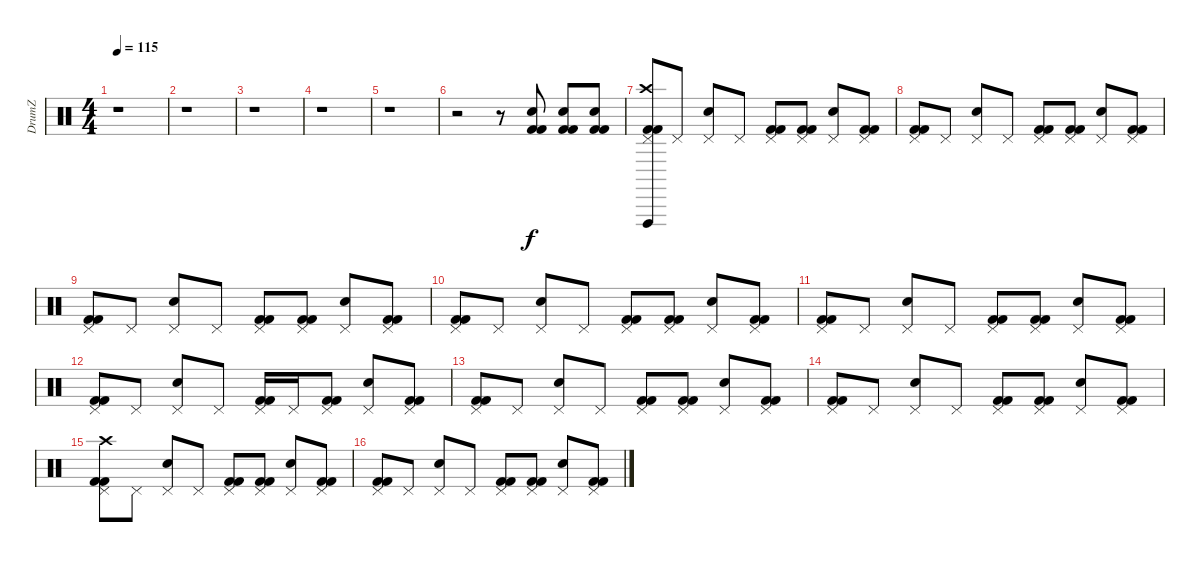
\track ("DrumZ" "DrumZ") {instrument percussion}
\staff {score}
\articulation defaults
\ts (4 4)
\tempo 115
\clef neutral
\ks c
r.1{dy f} |
r.1 |
r.1 |
r.1 |
r.1 |
r.2 r.8 ("Snare (hit) 2" "Kick (hit) 2" "Kick (hit) 2").8 ("Electric Snare (hit)" "Kick (hit) 2" "Kick (hit) 2").8 ("Snare (hit) 2" "Kick (hit) 2" "Kick (hit) 2").8 |
("Pedal Hi-Hat (hit)" "Crash high (hit)" "Vibraslap (hit)" "Kick (hit) 2" "Kick (hit) 2").8 "Pedal Hi-Hat (hit)".8 ("Pedal Hi-Hat (hit)" "Electric Snare (hit)").8 "Pedal Hi-Hat (hit)".8 ("Pedal Hi-Hat (hit)" "Kick (hit) 2" "Kick (hit) 2").8 ("Pedal Hi-Hat (hit)" "Kick (hit) 2" "Kick (hit) 2").8 ("Pedal Hi-Hat (hit)" "Electric Snare (hit)").8 ("Pedal Hi-Hat (hit)" "Kick (hit) 2" "Kick (hit) 2").8 |
("Pedal Hi-Hat (hit)" "Kick (hit) 2" "Kick (hit) 2").8 "Pedal Hi-Hat (hit)".8 ("Pedal Hi-Hat (hit)" "Electric Snare (hit)").8 "Pedal Hi-Hat (hit)".8 ("Pedal Hi-Hat (hit)" "Kick (hit) 2" "Kick (hit) 2").8 ("Pedal Hi-Hat (hit)" "Kick (hit) 2" "Kick (hit) 2").8 ("Pedal Hi-Hat (hit)" "Electric Snare (hit)").8 ("Pedal Hi-Hat (hit)" "Kick (hit) 2" "Kick (hit) 2").8 |
("Pedal Hi-Hat (hit)" "Kick (hit) 2" "Kick (hit) 2").8 "Pedal Hi-Hat (hit)".8 ("Pedal Hi-Hat (hit)" "Electric Snare (hit)").8 "Pedal Hi-Hat (hit)".8 ("Pedal Hi-Hat (hit)" "Kick (hit) 2" "Kick (hit) 2").8 ("Pedal Hi-Hat (hit)" "Kick (hit) 2" "Kick (hit) 2").8 ("Pedal Hi-Hat (hit)" "Electric Snare (hit)").8 ("Pedal Hi-Hat (hit)" "Kick (hit) 2" "Kick (hit) 2").8 |
("Pedal Hi-Hat (hit)" "Kick (hit) 2" "Kick (hit) 2").8 "Pedal Hi-Hat (hit)".8 ("Pedal Hi-Hat (hit)" "Electric Snare (hit)").8 "Pedal Hi-Hat (hit)".8 ("Pedal Hi-Hat (hit)" "Kick (hit) 2" "Kick (hit) 2").8 ("Pedal Hi-Hat (hit)" "Kick (hit) 2" "Kick (hit) 2").8 ("Pedal Hi-Hat (hit)" "Electric Snare (hit)").8 ("Pedal Hi-Hat (hit)" "Kick (hit) 2" "Kick (hit) 2").8 |
("Pedal Hi-Hat (hit)" "Kick (hit) 2" "Kick (hit) 2").8 "Pedal Hi-Hat (hit)".8 ("Pedal Hi-Hat (hit)" "Electric Snare (hit)").8 "Pedal Hi-Hat (hit)".8 ("Pedal Hi-Hat (hit)" "Kick (hit) 2" "Kick (hit) 2").8 ("Pedal Hi-Hat (hit)" "Kick (hit) 2" "Kick (hit) 2").8 ("Pedal Hi-Hat (hit)" "Electric Snare (hit)").8 ("Pedal Hi-Hat (hit)" "Kick (hit) 2" "Kick (hit) 2").8 |
("Pedal Hi-Hat (hit)" "Kick (hit) 2" "Kick (hit) 2").8 "Pedal Hi-Hat (hit)".8 ("Pedal Hi-Hat (hit)" "Electric Snare (hit)").8 "Pedal Hi-Hat (hit)".8 ("Pedal Hi-Hat (hit)" "Kick (hit) 2" "Kick (hit) 2").16 "Pedal Hi-Hat (hit)".16 ("Pedal Hi-Hat (hit)" "Kick (hit) 2" "Kick (hit) 2").8 ("Pedal Hi-Hat (hit)" "Electric Snare (hit)").8 ("Pedal Hi-Hat (hit)" "Kick (hit) 2" "Kick (hit) 2").8 |
("Pedal Hi-Hat (hit)" "Kick (hit) 2" "Kick (hit) 2").8 "Pedal Hi-Hat (hit)".8 ("Pedal Hi-Hat (hit)" "Electric Snare (hit)").8 "Pedal Hi-Hat (hit)".8 ("Pedal Hi-Hat (hit)" "Kick (hit) 2" "Kick (hit) 2").8 ("Pedal Hi-Hat (hit)" "Kick (hit) 2" "Kick (hit) 2").8 ("Pedal Hi-Hat (hit)" "Electric Snare (hit)").8 ("Pedal Hi-Hat (hit)" "Kick (hit) 2" "Kick (hit) 2").8 |
("Pedal Hi-Hat (hit)" "Kick (hit) 2" "Kick (hit) 2").8 "Pedal Hi-Hat (hit)".8 ("Pedal Hi-Hat (hit)" "Electric Snare (hit)").8 "Pedal Hi-Hat (hit)".8 ("Pedal Hi-Hat (hit)" "Kick (hit) 2" "Kick (hit) 2").8 ("Pedal Hi-Hat (hit)" "Kick (hit) 2" "Kick (hit) 2").8 ("Pedal Hi-Hat (hit)" "Electric Snare (hit)").8 ("Pedal Hi-Hat (hit)" "Kick (hit) 2" "Kick (hit) 2").8 |
("Pedal Hi-Hat (hit)" "Crash high (hit)" "Kick (hit) 2" "Kick (hit) 2").8 "Pedal Hi-Hat (hit)".8 ("Pedal Hi-Hat (hit)" "Electric Snare (hit)").8 "Pedal Hi-Hat (hit)".8 ("Pedal Hi-Hat (hit)" "Kick (hit) 2" "Kick (hit) 2").8 ("Pedal Hi-Hat (hit)" "Kick (hit) 2" "Kick (hit) 2").8 ("Pedal Hi-Hat (hit)" "Electric Snare (hit)").8 ("Pedal Hi-Hat (hit)" "Kick (hit) 2" "Kick (hit) 2").8 |
("Pedal Hi-Hat (hit)" "Kick (hit) 2" "Kick (hit) 2").8 "Pedal Hi-Hat (hit)".8 ("Pedal Hi-Hat (hit)" "Electric Snare (hit)").8 "Pedal Hi-Hat (hit)".8 ("Pedal Hi-Hat (hit)" "Kick (hit) 2" "Kick (hit) 2").8 ("Pedal Hi-Hat (hit)" "Kick (hit) 2" "Kick (hit) 2").8 ("Pedal Hi-Hat (hit)" "Electric Snare (hit)").8 ("Pedal Hi-Hat (hit)" "Kick (hit) 2" "Kick (hit) 2").8
